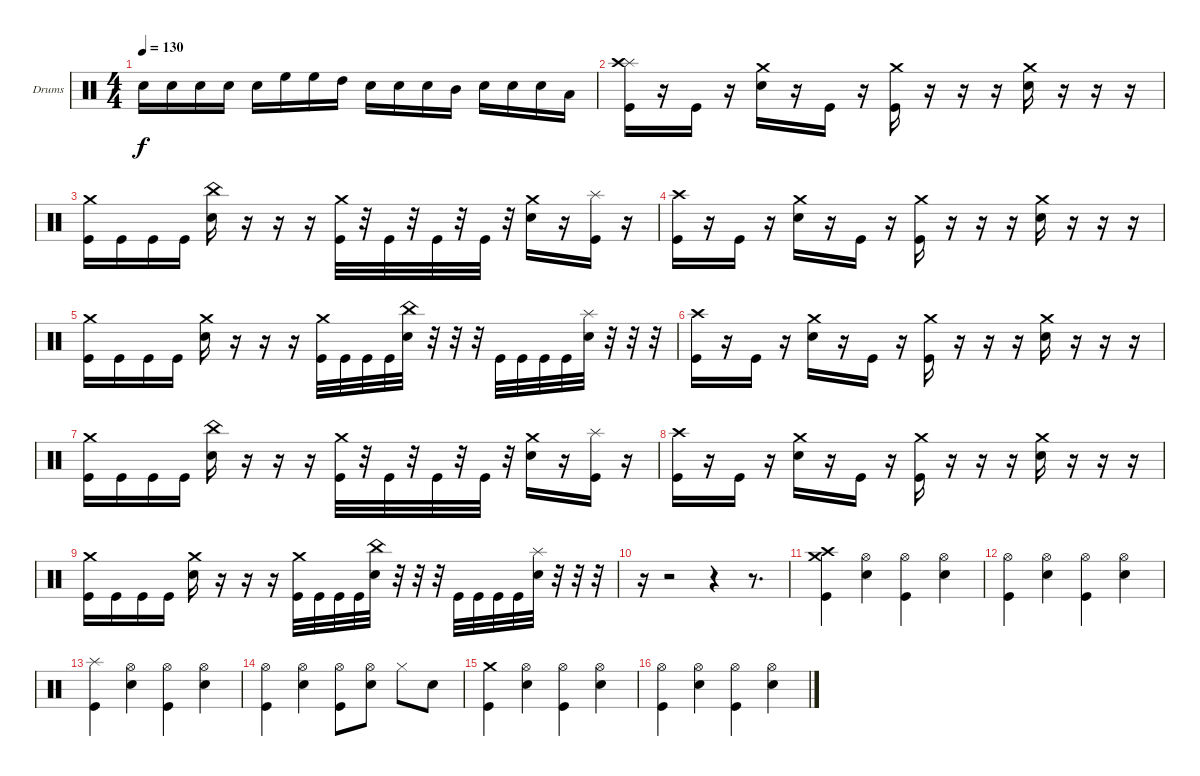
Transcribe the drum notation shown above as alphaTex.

\defaultSystemsLayout 4
\bracketExtendMode groupsimilarinstruments
\firstSystemTrackNameOrientation horizontal
\otherSystemsTrackNameOrientation horizontal
\track ("Drumkit" "Drums") {instrument percussion}
\staff {score}
\articulation defaults
\ts (4 4)
\tempo 130
\clef neutral
\scale
0.333333
\ks c "Snare (hit) 2".16{dy f} "Snare (hit) 2".16 "Snare (hit) 2".16 "Snare (hit) 2".16 "Snare (hit) 2".16 "High Floor Tom (hit)".16 "High Floor Tom (hit)".16 "High Tom (hit)".16 "Snare (hit) 2".16 "Snare (hit) 2".16 "Snare (hit) 2".16 "Mid Tom (hit)".16 "Snare (hit) 2".16 "Snare (hit) 2".16 "Snare (hit) 2".16 "Low Tom (hit)".16
|
\scale
0.333333 ("Kick (hit)" "Splash (hit)" "Crash high (hit)").16 r.16 "Kick (hit)".16 r.16 ("Snare (hit) 2" "Crash medium (hit)").16 r.16 "Kick (hit)".16 r.16 ("Kick (hit)" "Crash medium (hit)").16 r.16 r.16 r.16 ("Snare (hit) 2" "Crash medium (hit)").16 r.16 r.16 r.16 |
\scale
0.333333 ("Kick (hit)" "Crash medium (hit)").16 "Kick (hit)".16 "Kick (hit)".16 "Kick (hit)".16 ("Snare (hit) 2" "China (hit)").16 r.16 r.16 r.16 ("Kick (hit)" "Crash medium (hit)").32 r.32 "Kick (hit)".32 r.32 "Kick (hit)".32 r.32 "Kick (hit)".32 r.32 ("Snare (hit) 2" "Crash medium (hit)").16 r.16 ("Kick (hit)" "Splash (hit)").16 r.16 |
\scale
0.333333 ("Kick (hit)" "Crash high (hit)").16 r.16 "Kick (hit)".16 r.16 ("Snare (hit) 2" "Crash medium (hit)").16 r.16 "Kick (hit)".16 r.16 ("Kick (hit)" "Crash medium (hit)").16 r.16 r.16 r.16 ("Snare (hit) 2" "Crash medium (hit)").16 r.16 r.16 r.16 |
\scale
0.333333 ("Kick (hit)" "Crash medium (hit)").16 "Kick (hit)".16 "Kick (hit)".16 "Kick (hit)".16 ("Snare (hit) 2" "Crash medium (hit)").16 r.16 r.16 r.16 ("Kick (hit)" "Crash medium (hit)").32 "Kick (hit)".32 "Kick (hit)".32 "Kick (hit)".32 ("Snare (hit) 2" "China (hit)").32 r.32 r.32 r.32 "Kick (hit)".32 "Kick (hit)".32 "Kick (hit)".32 "Kick (hit)".32 ("Snare (hit) 2" "Splash (hit)").32 r.32 r.32 r.32 |
\scale
0.333333 ("Kick (hit)" "Crash high (hit)").16 r.16 "Kick (hit)".16 r.16 ("Snare (hit) 2" "Crash medium (hit)").16 r.16 "Kick (hit)".16 r.16 ("Kick (hit)" "Crash medium (hit)").16 r.16 r.16 r.16 ("Snare (hit) 2" "Crash medium (hit)").16 r.16 r.16 r.16 |
\scale
0.333333 ("Kick (hit)" "Crash medium (hit)").16 "Kick (hit)".16 "Kick (hit)".16 "Kick (hit)".16 ("Snare (hit) 2" "China (hit)").16 r.16 r.16 r.16 ("Kick (hit)" "Crash medium (hit)").32 r.32 "Kick (hit)".32 r.32 "Kick (hit)".32 r.32 "Kick (hit)".32 r.32 ("Snare (hit) 2" "Crash medium (hit)").16 r.16 ("Kick (hit)" "Splash (hit)").16 r.16 |
\scale
0.333333 ("Kick (hit)" "Crash high (hit)").16 r.16 "Kick (hit)".16 r.16 ("Snare (hit) 2" "Crash medium (hit)").16 r.16 "Kick (hit)".16 r.16 ("Kick (hit)" "Crash medium (hit)").16 r.16 r.16 r.16 ("Snare (hit) 2" "Crash medium (hit)").16 r.16 r.16 r.16 |
\scale
0.333333 ("Kick (hit)" "Crash medium (hit)").16 "Kick (hit)".16 "Kick (hit)".16 "Kick (hit)".16 ("Snare (hit) 2" "Crash medium (hit)").16 r.16 r.16 r.16 ("Kick (hit)" "Crash medium (hit)").32 "Kick (hit)".32 "Kick (hit)".32 "Kick (hit)".32 ("Snare (hit) 2" "China (hit)").32 r.32 r.32 r.32 "Kick (hit)".32 "Kick (hit)".32 "Kick (hit)".32 "Kick (hit)".32 ("Snare (hit) 2" "Splash (hit)").32 r.32 r.32 r.32 |
\scale
0.333333 r.16 r.2 r.4 r.8{d} |
\scale
0.333333 ("Kick (hit)" "Crash medium (hit)" "Crash high (hit)").4 ("Snare (hit) 2" "Hi-Hat (open)").4 ("Kick (hit)" "Hi-Hat (open)").4 ("Snare (hit) 2" "Hi-Hat (open)").4 |
\scale
0.333333 ("Kick (hit)" "Hi-Hat (open)").4 ("Snare (hit) 2" "Hi-Hat (open)").4 ("Kick (hit)" "Hi-Hat (open)").4 ("Snare (hit) 2" "Hi-Hat (open)").4 |
\scale
0.333333 ("Kick (hit)" "Splash (hit)").4 ("Snare (hit) 2" "Hi-Hat (open)").4 ("Kick (hit)" "Hi-Hat (open)").4 ("Snare (hit) 2" "Hi-Hat (open)").4 |
\scale
0.333333 ("Kick (hit)" "Hi-Hat (open)").4 ("Snare (hit) 2" "Hi-Hat (open)").4 ("Kick (hit)" "Hi-Hat (open)").8 ("Snare (hit) 2" "Hi-Hat (open)").8 "Hi-Hat (closed)".8 "Snare (hit) 2".8 |
\scale
0.333333 ("Kick (hit)" "Crash medium (hit)").4 ("Snare (hit) 2" "Hi-Hat (open)").4 ("Kick (hit)" "Hi-Hat (open)").4 ("Snare (hit) 2" "Hi-Hat (open)").4 |
\scale
0.333333 ("Kick (hit)" "Hi-Hat (open)").4 ("Snare (hit) 2" "Hi-Hat (open)").4 ("Kick (hit)" "Hi-Hat (open)").4 ("Snare (hit) 2" "Hi-Hat (open)").4
